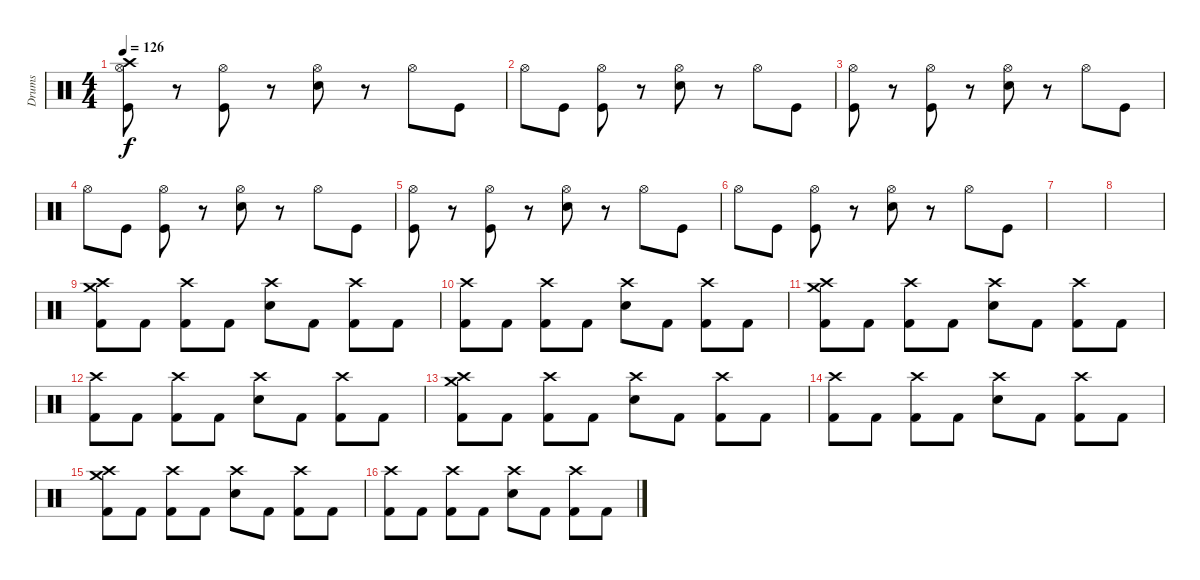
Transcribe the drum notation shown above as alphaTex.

\track ("Drums" "Drums") {instrument percussion}
\staff {score}
\articulation defaults
\ts (4 4)
\tempo 126
\clef neutral
\ks c
("Crash high (hit)" "Hi-Hat (open)" "Kick (hit)").8{dy f} r.8 ("Hi-Hat (open)" "Kick (hit)").8 r.8 ("Hi-Hat (open)" "Electric Snare (hit)").8 r.8 "Hi-Hat (open)".8 "Kick (hit)".8 |
"Hi-Hat (open)".8 "Kick (hit)".8 ("Hi-Hat (open)" "Kick (hit)").8 r.8 ("Hi-Hat (open)" "Electric Snare (hit)").8 r.8 "Hi-Hat (open)".8 "Kick (hit)".8 |
("Hi-Hat (open)" "Kick (hit)").8 r.8 ("Hi-Hat (open)" "Kick (hit)").8 r.8 ("Hi-Hat (open)" "Electric Snare (hit)").8 r.8 "Hi-Hat (open)".8 "Kick (hit)".8 |
"Hi-Hat (open)".8 "Kick (hit)".8 ("Hi-Hat (open)" "Kick (hit)").8 r.8 ("Hi-Hat (open)" "Electric Snare (hit)").8 r.8 "Hi-Hat (open)".8 "Kick (hit)".8 |
("Hi-Hat (open)" "Kick (hit)").8 r.8 ("Hi-Hat (open)" "Kick (hit)").8 r.8 ("Hi-Hat (open)" "Electric Snare (hit)").8 r.8 "Hi-Hat (open)".8 "Kick (hit)".8 |
"Hi-Hat (open)".8 "Kick (hit)".8 ("Hi-Hat (open)" "Kick (hit)").8 r.8 ("Hi-Hat (open)" "Electric Snare (hit)").8 r.8 "Hi-Hat (open)".8 "Kick (hit)".8 |
|
|
("Crash medium (hit)" "Crash high (hit)" "Kick (hit) 2").8 "Kick (hit) 2".8 ("Crash high (hit)" "Kick (hit) 2").8 "Kick (hit) 2".8 ("Crash high (hit)" "Electric Snare (hit)").8 "Kick (hit) 2".8 ("Crash high (hit)" "Kick (hit) 2").8 "Kick (hit) 2".8 |
("Crash high (hit)" "Kick (hit) 2").8 "Kick (hit) 2".8 ("Crash high (hit)" "Kick (hit) 2").8 "Kick (hit) 2".8 ("Crash high (hit)" "Electric Snare (hit)").8 "Kick (hit) 2".8 ("Crash high (hit)" "Kick (hit) 2").8 "Kick (hit) 2".8 |
("Crash medium (hit)" "Crash high (hit)" "Kick (hit) 2").8 "Kick (hit) 2".8 ("Crash high (hit)" "Kick (hit) 2").8 "Kick (hit) 2".8 ("Crash high (hit)" "Electric Snare (hit)").8 "Kick (hit) 2".8 ("Crash high (hit)" "Kick (hit) 2").8 "Kick (hit) 2".8 |
("Crash high (hit)" "Kick (hit) 2").8 "Kick (hit) 2".8 ("Crash high (hit)" "Kick (hit) 2").8 "Kick (hit) 2".8 ("Crash high (hit)" "Electric Snare (hit)").8 "Kick (hit) 2".8 ("Crash high (hit)" "Kick (hit) 2").8 "Kick (hit) 2".8 |
("Crash medium (hit)" "Crash high (hit)" "Kick (hit) 2").8 "Kick (hit) 2".8 ("Crash high (hit)" "Kick (hit) 2").8 "Kick (hit) 2".8 ("Crash high (hit)" "Electric Snare (hit)").8 "Kick (hit) 2".8 ("Crash high (hit)" "Kick (hit) 2").8 "Kick (hit) 2".8 |
("Crash high (hit)" "Kick (hit) 2").8 "Kick (hit) 2".8 ("Crash high (hit)" "Kick (hit) 2").8 "Kick (hit) 2".8 ("Crash high (hit)" "Electric Snare (hit)").8 "Kick (hit) 2".8 ("Crash high (hit)" "Kick (hit) 2").8 "Kick (hit) 2".8 |
("Crash medium (hit)" "Crash high (hit)" "Kick (hit) 2").8 "Kick (hit) 2".8 ("Crash high (hit)" "Kick (hit) 2").8 "Kick (hit) 2".8 ("Crash high (hit)" "Electric Snare (hit)").8 "Kick (hit) 2".8 ("Crash high (hit)" "Kick (hit) 2").8 "Kick (hit) 2".8 |
("Crash high (hit)" "Kick (hit) 2").8 "Kick (hit) 2".8 ("Crash high (hit)" "Kick (hit) 2").8 "Kick (hit) 2".8 ("Crash high (hit)" "Electric Snare (hit)").8 "Kick (hit) 2".8 ("Crash high (hit)" "Kick (hit) 2").8 "Kick (hit) 2".8
